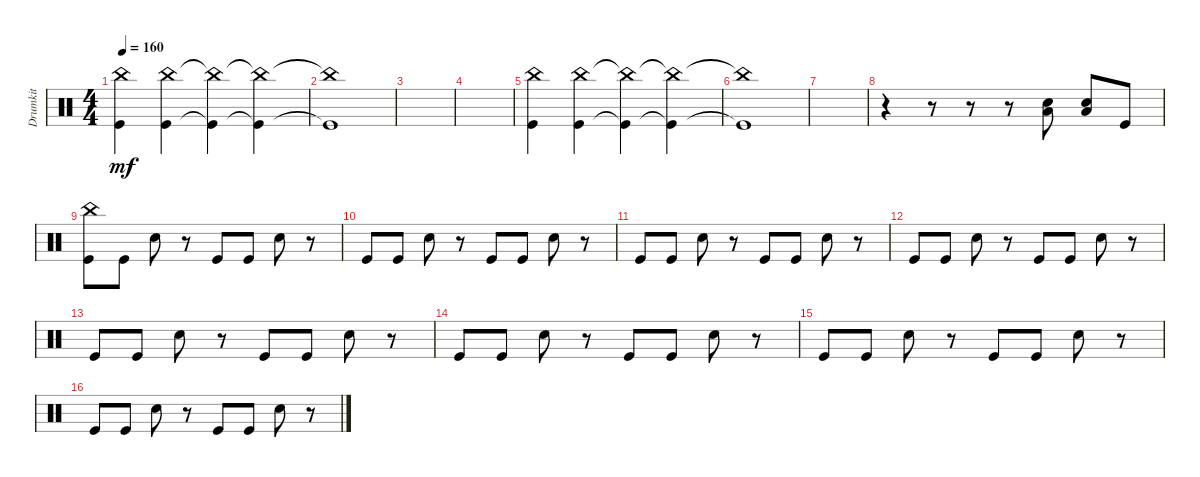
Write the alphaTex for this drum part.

\track ("Drumkit" "Drumkit") {instrument percussion}
\staff {score}
\articulation defaults
\ts (4 4)
\tempo 160
\clef neutral
\ks c
("Kick (hit)" "China (hit)").4{dy mf} ("Kick (hit)" "China (hit)").4 ("Kick (hit)"{t} "China (hit)"{t}).4 ("Kick (hit)"{t} "China (hit)"{t}).4 |
("Kick (hit)"{t} "China (hit)"{t}).1 |
|
|
("Kick (hit)" "China (hit)").4 ("Kick (hit)" "China (hit)").4 ("Kick (hit)"{t} "China (hit)"{t}).4 ("Kick (hit)"{t} "China (hit)"{t}).4 |
("Kick (hit)"{t} "China (hit)"{t}).1 |
|
r.4 r.8 r.8 r.8 ("Snare (hit) 2" "Low Floor Tom (hit)").8 ("Snare (hit) 2" "Low Floor Tom (hit)").8 "Kick (hit)".8 |
("Kick (hit)" "China (hit)").8 "Kick (hit)".8 "Snare (hit) 2".8 r.8 "Kick (hit)".8 "Kick (hit)".8 "Snare (hit) 2".8 r.8 |
"Kick (hit)".8 "Kick (hit)".8 "Snare (hit) 2".8 r.8 "Kick (hit)".8 "Kick (hit)".8 "Snare (hit) 2".8 r.8 |
"Kick (hit)".8 "Kick (hit)".8 "Snare (hit) 2".8 r.8 "Kick (hit)".8 "Kick (hit)".8 "Snare (hit) 2".8 r.8 |
"Kick (hit)".8 "Kick (hit)".8 "Snare (hit) 2".8 r.8 "Kick (hit)".8 "Kick (hit)".8 "Snare (hit) 2".8 r.8 |
"Kick (hit)".8 "Kick (hit)".8 "Snare (hit) 2".8 r.8 "Kick (hit)".8 "Kick (hit)".8 "Snare (hit) 2".8 r.8 |
"Kick (hit)".8 "Kick (hit)".8 "Snare (hit) 2".8 r.8 "Kick (hit)".8 "Kick (hit)".8 "Snare (hit) 2".8 r.8 |
"Kick (hit)".8 "Kick (hit)".8 "Snare (hit) 2".8 r.8 "Kick (hit)".8 "Kick (hit)".8 "Snare (hit) 2".8 r.8 |
"Kick (hit)".8 "Kick (hit)".8 "Snare (hit) 2".8 r.8 "Kick (hit)".8 "Kick (hit)".8 "Snare (hit) 2".8 r.8
